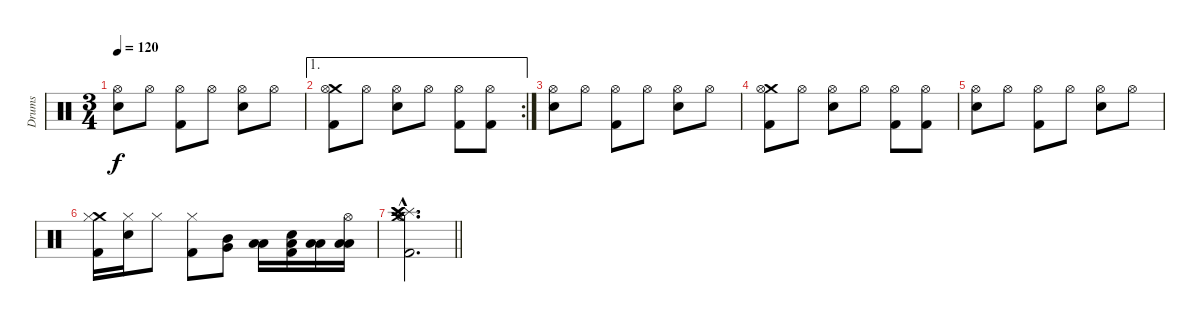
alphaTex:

\track ("Drums" "Drums") {instrument percussion}
\staff {score}
\articulation defaults
\ts (3 4)
\tempo 120
\clef neutral
\ks c
("Electric Snare (hit)" "Hi-Hat (open)").8{dy f} "Hi-Hat (open)".8 ("Kick (hit) 2" "Hi-Hat (open)").8 "Hi-Hat (open)".8 ("Electric Snare (hit)" "Hi-Hat (open)").8 "Hi-Hat (open)".8 |
\ae 1
\rc 2
("Crash medium (hit)" "Kick (hit) 2" "Hi-Hat (open)").8 "Hi-Hat (open)".8 ("Electric Snare (hit)" "Hi-Hat (open)").8 "Hi-Hat (open)".8 ("Kick (hit) 2" "Hi-Hat (open)").8 ("Kick (hit) 2" "Hi-Hat (open)").8 |
("Electric Snare (hit)" "Hi-Hat (open)").8 "Hi-Hat (open)".8 ("Kick (hit) 2" "Hi-Hat (open)").8 "Hi-Hat (open)".8 ("Electric Snare (hit)" "Hi-Hat (open)").8 "Hi-Hat (open)".8 |
("Crash medium (hit)" "Kick (hit) 2" "Hi-Hat (open)").8 "Hi-Hat (open)".8 ("Electric Snare (hit)" "Hi-Hat (open)").8 "Hi-Hat (open)".8 ("Kick (hit) 2" "Hi-Hat (open)").8 ("Kick (hit) 2" "Hi-Hat (open)").8 |
("Electric Snare (hit)" "Hi-Hat (open)").8 "Hi-Hat (open)".8 ("Kick (hit) 2" "Hi-Hat (open)").8 "Hi-Hat (open)".8 ("Electric Snare (hit)" "Hi-Hat (open)").8 "Hi-Hat (open)".8 |
("Crash medium (hit)" "Hi-Hat (closed)" "Kick (hit) 2").16 ("Hi-Hat (closed)" "Electric Snare (hit)").16 "Hi-Hat (closed)".8 ("Hi-Hat (closed)" "Kick (hit) 2").8 ("Very Low Tom (hit)" "Mid Tom (hit)").8 ("Low Floor Tom (hit)" "Low Tom (hit)").16 ("Kick (hit) 2" "Low Tom (hit)" "Electric Snare (hit)").16 ("Low Floor Tom (hit)" "Low Tom (hit)").16 ("Low Floor Tom (hit)" "Low Tom (hit)" "Hi-Hat (open)").16 |
\barLineRight lightlight
("Splash (hit)"{hac} "Crash medium (hit)"{hac} "Hi-Hat (open)"{hac} "Kick (hit) 2"{hac} "Crash high (hit)"{hac} "Crash high (hit)"{hac}).2{d}
